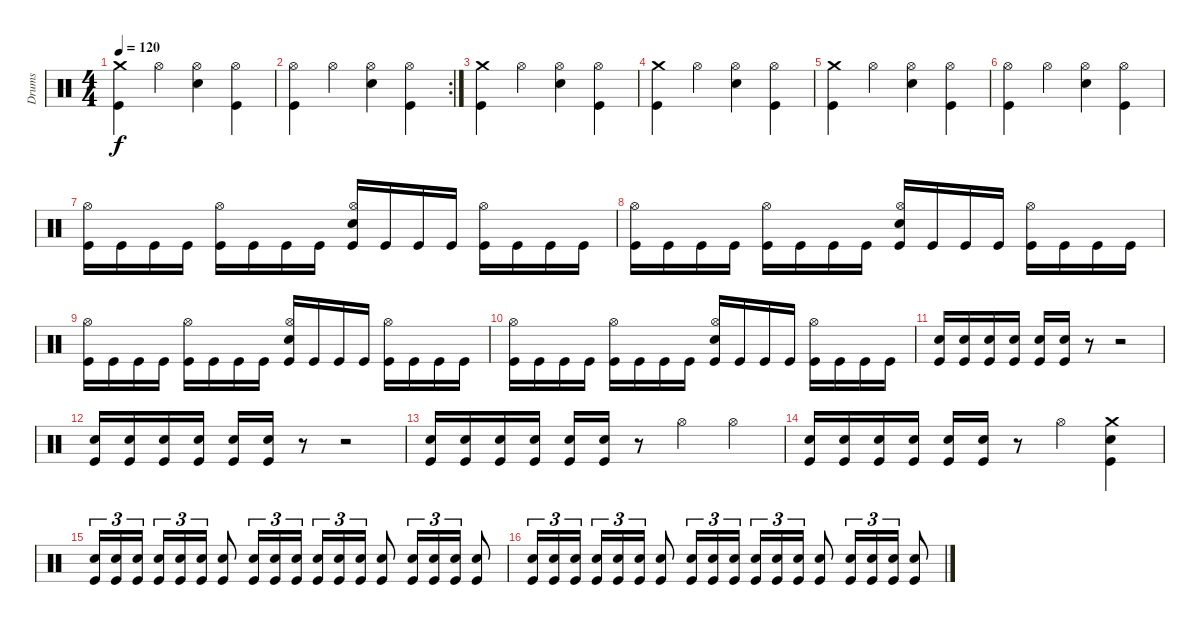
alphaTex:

\track ("Drums" "Drums") {instrument percussion}
\staff {score}
\articulation defaults
\ts (4 4)
\tempo 120
\clef neutral
\ks c
("Crash medium (hit)" "Kick (hit)").4{dy f} "Hi-Hat (open)".4 ("Hi-Hat (open)" "Snare (hit) 2").4 ("Hi-Hat (open)" "Kick (hit)").4 |
\rc 2
("Hi-Hat (open)" "Kick (hit)").4 "Hi-Hat (open)".4 ("Hi-Hat (open)" "Snare (hit) 2").4 ("Hi-Hat (open)" "Kick (hit)").4 |
("Crash medium (hit)" "Kick (hit)").4 "Hi-Hat (open)".4 ("Hi-Hat (open)" "Snare (hit) 2").4 ("Hi-Hat (open)" "Kick (hit)").4 |
("Crash medium (hit)" "Kick (hit)").4 "Hi-Hat (open)".4 ("Hi-Hat (open)" "Snare (hit) 2").4 ("Hi-Hat (open)" "Kick (hit)").4 |
("Crash medium (hit)" "Kick (hit)").4 "Hi-Hat (open)".4 ("Hi-Hat (open)" "Snare (hit) 2").4 ("Hi-Hat (open)" "Kick (hit)").4 |
("Hi-Hat (open)" "Kick (hit)").4 "Hi-Hat (open)".4 ("Hi-Hat (open)" "Snare (hit) 2").4 ("Hi-Hat (open)" "Kick (hit)").4 |
("Hi-Hat (open)" "Kick (hit)").16 "Kick (hit)".16 "Kick (hit)".16 "Kick (hit)".16 ("Hi-Hat (open)" "Kick (hit)").16 "Kick (hit)".16 "Kick (hit)".16 "Kick (hit)".16 ("Hi-Hat (open)" "Snare (hit) 2" "Kick (hit)").16 "Kick (hit)".16 "Kick (hit)".16 "Kick (hit)".16 ("Hi-Hat (open)" "Kick (hit)").16 "Kick (hit)".16 "Kick (hit)".16 "Kick (hit)".16 |
("Hi-Hat (open)" "Kick (hit)").16 "Kick (hit)".16 "Kick (hit)".16 "Kick (hit)".16 ("Hi-Hat (open)" "Kick (hit)").16 "Kick (hit)".16 "Kick (hit)".16 "Kick (hit)".16 ("Hi-Hat (open)" "Snare (hit) 2" "Kick (hit)").16 "Kick (hit)".16 "Kick (hit)".16 "Kick (hit)".16 ("Hi-Hat (open)" "Kick (hit)").16 "Kick (hit)".16 "Kick (hit)".16 "Kick (hit)".16 |
("Hi-Hat (open)" "Kick (hit)").16 "Kick (hit)".16 "Kick (hit)".16 "Kick (hit)".16 ("Hi-Hat (open)" "Kick (hit)").16 "Kick (hit)".16 "Kick (hit)".16 "Kick (hit)".16 ("Hi-Hat (open)" "Snare (hit) 2" "Kick (hit)").16 "Kick (hit)".16 "Kick (hit)".16 "Kick (hit)".16 ("Hi-Hat (open)" "Kick (hit)").16 "Kick (hit)".16 "Kick (hit)".16 "Kick (hit)".16 |
("Hi-Hat (open)" "Kick (hit)").16 "Kick (hit)".16 "Kick (hit)".16 "Kick (hit)".16 ("Hi-Hat (open)" "Kick (hit)").16 "Kick (hit)".16 "Kick (hit)".16 "Kick (hit)".16 ("Hi-Hat (open)" "Snare (hit) 2" "Kick (hit)").16 "Kick (hit)".16 "Kick (hit)".16 "Kick (hit)".16 ("Hi-Hat (open)" "Kick (hit)").16 "Kick (hit)".16 "Kick (hit)".16 "Kick (hit)".16 |
("Snare (hit) 2" "Kick (hit)").16 ("Snare (hit) 2" "Kick (hit)").16 ("Snare (hit) 2" "Kick (hit)").16 ("Snare (hit) 2" "Kick (hit)").16 ("Snare (hit) 2" "Kick (hit)").16 ("Snare (hit) 2" "Kick (hit)").16 r.8 r.2 |
("Snare (hit) 2" "Kick (hit)").16 ("Snare (hit) 2" "Kick (hit)").16 ("Snare (hit) 2" "Kick (hit)").16 ("Snare (hit) 2" "Kick (hit)").16 ("Snare (hit) 2" "Kick (hit)").16 ("Snare (hit) 2" "Kick (hit)").16 r.8 r.2 |
("Snare (hit) 2" "Kick (hit)").16 ("Snare (hit) 2" "Kick (hit)").16 ("Snare (hit) 2" "Kick (hit)").16 ("Snare (hit) 2" "Kick (hit)").16 ("Snare (hit) 2" "Kick (hit)").16 ("Snare (hit) 2" "Kick (hit)").16 r.8 "Hi-Hat (open)".4 "Hi-Hat (open)".4 |
("Snare (hit) 2" "Kick (hit)").16 ("Snare (hit) 2" "Kick (hit)").16 ("Snare (hit) 2" "Kick (hit)").16 ("Snare (hit) 2" "Kick (hit)").16 ("Snare (hit) 2" "Kick (hit)").16 ("Snare (hit) 2" "Kick (hit)").16 r.8 "Hi-Hat (open)".4 ("Crash medium (hit)" "Snare (hit) 2" "Kick (hit)").4 |
("Snare (hit) 2" "Kick (hit)").16{tu (3 2)} ("Snare (hit) 2" "Kick (hit)").16{tu (3 2)} ("Snare (hit) 2" "Kick (hit)").16{tu (3 2) beam splitsecondary} ("Snare (hit) 2" "Kick (hit)").16{tu (3 2)} ("Snare (hit) 2" "Kick (hit)").16{tu (3 2)} ("Snare (hit) 2" "Kick (hit)").16{tu (3 2)} ("Snare (hit) 2" "Kick (hit)").8 ("Snare (hit) 2" "Kick (hit)").16{tu (3 2)} ("Snare (hit) 2" "Kick (hit)").16{tu (3 2)} ("Snare (hit) 2" "Kick (hit)").16{tu (3 2)} ("Snare (hit) 2" "Kick (hit)").16{tu (3 2)} ("Snare (hit) 2" "Kick (hit)").16{tu (3 2)} ("Snare (hit) 2" "Kick (hit)").16{tu (3 2)} ("Snare (hit) 2" "Kick (hit)").8 ("Snare (hit) 2" "Kick (hit)").16{tu (3 2)} ("Snare (hit) 2" "Kick (hit)").16{tu (3 2)} ("Snare (hit) 2" "Kick (hit)").16{tu (3 2)} ("Snare (hit) 2" "Kick (hit)").8 |
("Snare (hit) 2" "Kick (hit)").16{tu (3 2)} ("Snare (hit) 2" "Kick (hit)").16{tu (3 2)} ("Snare (hit) 2" "Kick (hit)").16{tu (3 2) beam splitsecondary} ("Snare (hit) 2" "Kick (hit)").16{tu (3 2)} ("Snare (hit) 2" "Kick (hit)").16{tu (3 2)} ("Snare (hit) 2" "Kick (hit)").16{tu (3 2)} ("Snare (hit) 2" "Kick (hit)").8 ("Snare (hit) 2" "Kick (hit)").16{tu (3 2)} ("Snare (hit) 2" "Kick (hit)").16{tu (3 2)} ("Snare (hit) 2" "Kick (hit)").16{tu (3 2)} ("Snare (hit) 2" "Kick (hit)").16{tu (3 2)} ("Snare (hit) 2" "Kick (hit)").16{tu (3 2)} ("Snare (hit) 2" "Kick (hit)").16{tu (3 2)} ("Snare (hit) 2" "Kick (hit)").8 ("Snare (hit) 2" "Kick (hit)").16{tu (3 2)} ("Snare (hit) 2" "Kick (hit)").16{tu (3 2)} ("Snare (hit) 2" "Kick (hit)").16{tu (3 2)} ("Snare (hit) 2" "Kick (hit)").8
